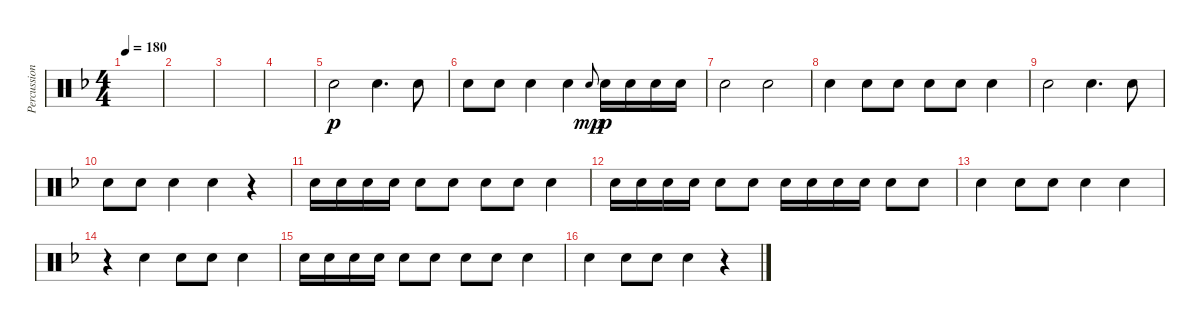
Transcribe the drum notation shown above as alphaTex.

\track ("Percussion" "Percussion") {instrument percussion}
\staff {score}
\articulation defaults
\ts (4 4)
\tempo 180
\clef neutral
\ks f
|
|
|
|
"Snare (hit) 2".2{dy p} "Snare (hit) 2".4{d} "Snare (hit) 2".8 |
"Snare (hit) 2".8 "Snare (hit) 2".8 "Snare (hit) 2".4 "Snare (hit) 2".4 "Snare (hit) 2".8{gr onbeat dy mp} "Snare (hit) 2".16{dy p} "Snare (hit) 2".16 "Snare (hit) 2".16 "Snare (hit) 2".16 |
"Snare (hit) 2".2 "Snare (hit) 2".2 |
"Snare (hit) 2".4 "Snare (hit) 2".8 "Snare (hit) 2".8 "Snare (hit) 2".8 "Snare (hit) 2".8 "Snare (hit) 2".4 |
"Snare (hit) 2".2 "Snare (hit) 2".4{d} "Snare (hit) 2".8 |
"Snare (hit) 2".8 "Snare (hit) 2".8 "Snare (hit) 2".4 "Snare (hit) 2".4 r.4 |
"Snare (hit) 2".16 "Snare (hit) 2".16 "Snare (hit) 2".16 "Snare (hit) 2".16 "Snare (hit) 2".8 "Snare (hit) 2".8 "Snare (hit) 2".8 "Snare (hit) 2".8 "Snare (hit) 2".4 |
"Snare (hit) 2".16 "Snare (hit) 2".16 "Snare (hit) 2".16 "Snare (hit) 2".16 "Snare (hit) 2".8 "Snare (hit) 2".8 "Snare (hit) 2".16 "Snare (hit) 2".16 "Snare (hit) 2".16 "Snare (hit) 2".16 "Snare (hit) 2".8 "Snare (hit) 2".8 |
"Snare (hit) 2".4 "Snare (hit) 2".8 "Snare (hit) 2".8 "Snare (hit) 2".4 "Snare (hit) 2".4 |
r.4 "Snare (hit) 2".4 "Snare (hit) 2".8 "Snare (hit) 2".8 "Snare (hit) 2".4 |
"Snare (hit) 2".16 "Snare (hit) 2".16 "Snare (hit) 2".16 "Snare (hit) 2".16 "Snare (hit) 2".8 "Snare (hit) 2".8 "Snare (hit) 2".8 "Snare (hit) 2".8 "Snare (hit) 2".4 |
"Snare (hit) 2".4 "Snare (hit) 2".8 "Snare (hit) 2".8 "Snare (hit) 2".4 r.4
